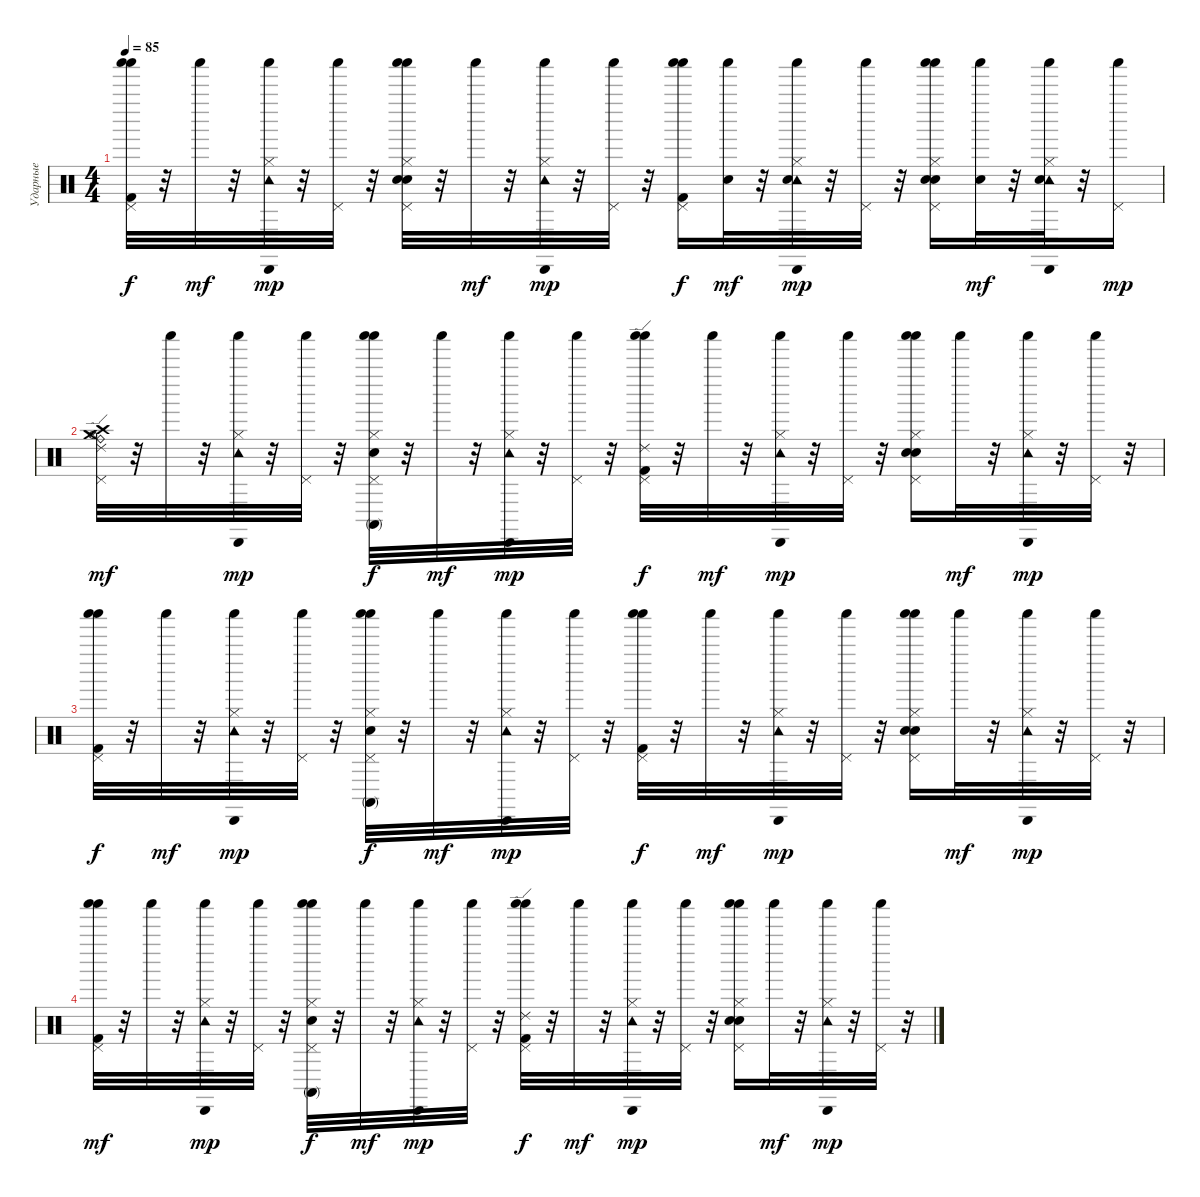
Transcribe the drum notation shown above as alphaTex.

\track ("Ударные" "Ударные") {instrument percussion}
\staff {score}
\articulation defaults
\ts (4 4)
\tempo 85
\clef neutral
\ks c
("Pedal Hi-Hat (hit)" "Shaker (hit)" "Shaker (hit)" "Kick (hit) 2").32{dy f} r.32 "Shaker (hit)".32{dy mf} r.32 ("Hi-Hat (closed)" "Cabasa (hit)" "Shaker (hit)" "Tambourine (hit)").32{dy mp} r.32 ("Pedal Hi-Hat (hit)" "Shaker (hit)").32 r.32 ("Hi-Hat (closed)" "Pedal Hi-Hat (hit)" "Shaker (hit)" "Shaker (hit)" "Snare (hit) 2" "Electric Snare (hit)").32 r.32 "Shaker (hit)".32{dy mf} r.32 ("Hi-Hat (closed)" "Cabasa (hit)" "Shaker (hit)" "Tambourine (hit)").32{dy mp} r.32 ("Pedal Hi-Hat (hit)" "Shaker (hit)").32 r.32 ("Pedal Hi-Hat (hit)" "Shaker (hit)" "Shaker (hit)" "Kick (hit) 2").16{dy f} ("Shaker (hit)" "Snare (hit) 2").32{dy mf} r.32 ("Hi-Hat (closed)" "Cabasa (hit)" "Shaker (hit)" "Tambourine (hit)" "Snare (hit) 2").32{dy mp} r.32 ("Pedal Hi-Hat (hit)" "Shaker (hit)").32 r.32 ("Hi-Hat (closed)" "Pedal Hi-Hat (hit)" "Shaker (hit)" "Shaker (hit)" "Snare (hit) 2" "Electric Snare (hit)").16 ("Shaker (hit)" "Snare (hit) 2").32{dy mf} r.32 ("Hi-Hat (closed)" "Cabasa (hit)" "Shaker (hit)" "Tambourine (hit)" "Snare (hit) 2").32 r.32 ("Pedal Hi-Hat (hit)" "Shaker (hit)").16{dy mp} |
("Ride (bell)" "Hi-Hat (open)" "Crash high (hit)" "Ride (edge) 2" "Crash medium (hit)" "Pedal Hi-Hat (hit)").32{dy mf} r.32 "Shaker (hit)".32 r.32 ("Hi-Hat (closed)" "Cabasa (hit)" "Shaker (hit)" "Tambourine (hit)").32{dy mp} r.32 ("Pedal Hi-Hat (hit)" "Shaker (hit)").32 r.32 ("Hi-Hat (closed)" "Conga high (mute)" "Pedal Hi-Hat (hit)" "Shaker (hit)" "Shaker (hit)" "Snare (hit) 2").32{dy f} r.32 "Shaker (hit)".32{dy mf} r.32 ("Hi-Hat (closed)" "Cabasa (hit)" "Shaker (hit)" "Tambourine (hit)").32{dy mp} r.32 ("Pedal Hi-Hat (hit)" "Shaker (hit)").32 r.32 ("Ride (edge) 2" "Pedal Hi-Hat (hit)" "Shaker (hit)" "Shaker (hit)" "Kick (hit) 2").32{dy f} r.32 "Shaker (hit)".32{dy mf} r.32 ("Hi-Hat (closed)" "Cabasa (hit)" "Shaker (hit)" "Tambourine (hit)").32{dy mp} r.32 ("Pedal Hi-Hat (hit)" "Shaker (hit)").32 r.32 ("Hi-Hat (closed)" "Pedal Hi-Hat (hit)" "Shaker (hit)" "Shaker (hit)" "Snare (hit) 2" "Electric Snare (hit)").16 "Shaker (hit)".32{dy mf} r.32 ("Hi-Hat (closed)" "Cabasa (hit)" "Shaker (hit)" "Tambourine (hit)").32{dy mp} r.32 ("Pedal Hi-Hat (hit)" "Shaker (hit)").32 r.32 |
("Pedal Hi-Hat (hit)" "Shaker (hit)" "Shaker (hit)" "Kick (hit) 2").32{dy f} r.32 "Shaker (hit)".32{dy mf} r.32 ("Hi-Hat (closed)" "Cabasa (hit)" "Shaker (hit)" "Tambourine (hit)").32{dy mp} r.32 ("Pedal Hi-Hat (hit)" "Shaker (hit)").32 r.32 ("Hi-Hat (closed)" "Conga high (mute)" "Pedal Hi-Hat (hit)" "Shaker (hit)" "Shaker (hit)" "Snare (hit) 2").32{dy f} r.32 "Shaker (hit)".32{dy mf} r.32 ("Hi-Hat (closed)" "Cabasa (hit)" "Shaker (hit)" "Tambourine (hit)").32{dy mp} r.32 ("Pedal Hi-Hat (hit)" "Shaker (hit)").32 r.32 ("Pedal Hi-Hat (hit)" "Shaker (hit)" "Shaker (hit)" "Kick (hit) 2").32{dy f} r.32 "Shaker (hit)".32{dy mf} r.32 ("Hi-Hat (closed)" "Cabasa (hit)" "Shaker (hit)" "Tambourine (hit)").32{dy mp} r.32 ("Pedal Hi-Hat (hit)" "Shaker (hit)").32 r.32 ("Hi-Hat (closed)" "Pedal Hi-Hat (hit)" "Shaker (hit)" "Shaker (hit)" "Snare (hit) 2" "Electric Snare (hit)").16 "Shaker (hit)".32{dy mf} r.32 ("Hi-Hat (closed)" "Cabasa (hit)" "Shaker (hit)" "Tambourine (hit)").32{dy mp} r.32 ("Pedal Hi-Hat (hit)" "Shaker (hit)").32 r.32 |
("Pedal Hi-Hat (hit)" "Shaker (hit)" "Shaker (hit)" "Kick (hit) 2").32{dy mf} r.32 "Shaker (hit)".32 r.32 ("Hi-Hat (closed)" "Cabasa (hit)" "Shaker (hit)" "Tambourine (hit)").32{dy mp} r.32 ("Pedal Hi-Hat (hit)" "Shaker (hit)").32 r.32 ("Hi-Hat (closed)" "Conga high (mute)" "Pedal Hi-Hat (hit)" "Shaker (hit)" "Shaker (hit)" "Snare (hit) 2").32{dy f} r.32 "Shaker (hit)".32{dy mf} r.32 ("Hi-Hat (closed)" "Cabasa (hit)" "Shaker (hit)" "Tambourine (hit)").32{dy mp} r.32 ("Pedal Hi-Hat (hit)" "Shaker (hit)").32 r.32 ("Ride (edge) 2" "Pedal Hi-Hat (hit)" "Shaker (hit)" "Shaker (hit)" "Kick (hit) 2").32{dy f} r.32 "Shaker (hit)".32{dy mf} r.32 ("Hi-Hat (closed)" "Cabasa (hit)" "Shaker (hit)" "Tambourine (hit)").32{dy mp} r.32 ("Pedal Hi-Hat (hit)" "Shaker (hit)").32 r.32 ("Hi-Hat (closed)" "Pedal Hi-Hat (hit)" "Shaker (hit)" "Shaker (hit)" "Snare (hit) 2" "Electric Snare (hit)").16 "Shaker (hit)".32{dy mf} r.32 ("Hi-Hat (closed)" "Cabasa (hit)" "Shaker (hit)" "Tambourine (hit)").32{dy mp} r.32 ("Pedal Hi-Hat (hit)" "Shaker (hit)").32 r.32
